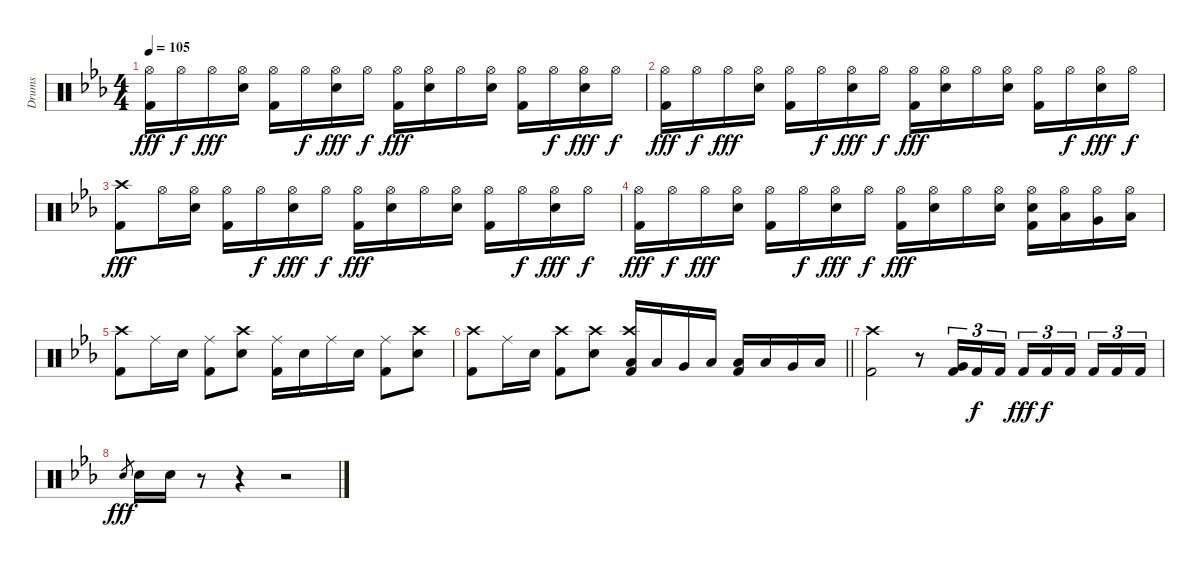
\track ("Drums" "Drums") {instrument percussion}
\staff {score}
\articulation defaults
\ts (4 4)
\tempo 105
\clef neutral
\ks eb
("Hi-Hat (open)" "Kick (hit) 2").16{dy fff} "Hi-Hat (open)".16{dy f} "Hi-Hat (open)".16{dy fff} ("Hi-Hat (open)" "Snare (hit) 2").16 ("Hi-Hat (open)" "Kick (hit) 2").16 "Hi-Hat (open)".16{dy f} ("Hi-Hat (open)" "Snare (hit) 2").16{dy fff} "Hi-Hat (open)".16{dy f} ("Hi-Hat (open)" "Kick (hit) 2").16{dy fff} ("Hi-Hat (open)" "Snare (hit) 2").16 "Hi-Hat (open)".16 ("Hi-Hat (open)" "Snare (hit) 2").16 ("Hi-Hat (open)" "Kick (hit) 2").16 "Hi-Hat (open)".16{dy f} ("Hi-Hat (open)" "Snare (hit) 2").16{dy fff} "Hi-Hat (open)".16{dy f} |
("Hi-Hat (open)" "Kick (hit) 2").16{dy fff} "Hi-Hat (open)".16{dy f} "Hi-Hat (open)".16{dy fff} ("Hi-Hat (open)" "Snare (hit) 2").16 ("Hi-Hat (open)" "Kick (hit) 2").16 "Hi-Hat (open)".16{dy f} ("Hi-Hat (open)" "Snare (hit) 2").16{dy fff} "Hi-Hat (open)".16{dy f} ("Hi-Hat (open)" "Kick (hit) 2").16{dy fff} ("Hi-Hat (open)" "Snare (hit) 2").16 "Hi-Hat (open)".16 ("Hi-Hat (open)" "Snare (hit) 2").16 ("Hi-Hat (open)" "Kick (hit) 2").16 "Hi-Hat (open)".16{dy f} ("Hi-Hat (open)" "Snare (hit) 2").16{dy fff} "Hi-Hat (open)".16{dy f} |
("Crash high (hit)" "Kick (hit) 2").8{dy fff} "Hi-Hat (open)".16 ("Hi-Hat (open)" "Snare (hit) 2").16 ("Hi-Hat (open)" "Kick (hit) 2").16 "Hi-Hat (open)".16{dy f} ("Hi-Hat (open)" "Snare (hit) 2").16{dy fff} "Hi-Hat (open)".16{dy f} ("Hi-Hat (open)" "Kick (hit) 2").16{dy fff} ("Hi-Hat (open)" "Snare (hit) 2").16 "Hi-Hat (open)".16 ("Hi-Hat (open)" "Snare (hit) 2").16 ("Hi-Hat (open)" "Kick (hit) 2").16 "Hi-Hat (open)".16{dy f} ("Hi-Hat (open)" "Snare (hit) 2").16{dy fff} "Hi-Hat (open)".16{dy f} |
("Hi-Hat (open)" "Kick (hit) 2").16{dy fff} "Hi-Hat (open)".16{dy f} "Hi-Hat (open)".16{dy fff} ("Hi-Hat (open)" "Snare (hit) 2").16 ("Hi-Hat (open)" "Kick (hit) 2").16 "Hi-Hat (open)".16{dy f} ("Hi-Hat (open)" "Snare (hit) 2").16{dy fff} "Hi-Hat (open)".16{dy f} ("Hi-Hat (open)" "Kick (hit) 2").16{dy fff} ("Hi-Hat (open)" "Snare (hit) 2").16 "Hi-Hat (open)".16 ("Hi-Hat (open)" "Snare (hit) 2").16 ("Hi-Hat (open)" "Snare (hit) 2" "Kick (hit) 2").16 ("Hi-Hat (open)" "Low Tom (hit)").16 ("Hi-Hat (open)" "Very Low Tom (hit)").16 ("Hi-Hat (open)" "Low Floor Tom (hit)").16 |
("Crash high (hit)" "Kick (hit) 2").8 "Ride (middle)".16 "Snare (hit) 2".16 ("Ride (middle)" "Kick (hit) 2").8 ("Crash high (hit)" "Snare (hit) 2").8 ("Ride (middle)" "Kick (hit) 2").16 "Snare (hit) 2".16 "Ride (middle)".16 "Snare (hit) 2".16 ("Ride (middle)" "Kick (hit) 2").8 ("Crash high (hit)" "Snare (hit) 2").8 |
\barLineRight lightlight
("Crash high (hit)" "Kick (hit) 2").8 "Ride (middle)".16 "Snare (hit) 2".16 ("Crash high (hit)" "Kick (hit) 2").8 ("Crash high (hit)" "Snare (hit) 2").8 ("Crash high (hit)" "Low Tom (hit)" "Kick (hit) 2").16 "Low Tom (hit)".16 "Very Low Tom (hit)".16 "Low Floor Tom (hit)".16 ("Low Tom (hit)" "Kick (hit) 2").16 "Low Tom (hit)".16 "Very Low Tom (hit)".16 "Low Floor Tom (hit)".16 |
("Crash high (hit)" "Kick (hit) 2").2 r.8 ("Very Low Tom (hit)" "Kick (hit) 2").16{tu (3 2)} "Kick (hit) 2".16{tu (3 2) dy f} "Kick (hit) 2".16{tu (3 2)} "Kick (hit) 2".16{tu (3 2) dy fff} "Kick (hit) 2".16{tu (3 2) dy f} "Kick (hit) 2".16{tu (3 2) beam splitsecondary} "Kick (hit) 2".16{tu (3 2)} "Kick (hit) 2".16{tu (3 2)} "Kick (hit) 2".16{tu (3 2)} |
"Snare (hit) 2".8{gr dy fff} "Snare (hit) 2".16 "Snare (hit) 2".16 r.8 r.4 r.2
